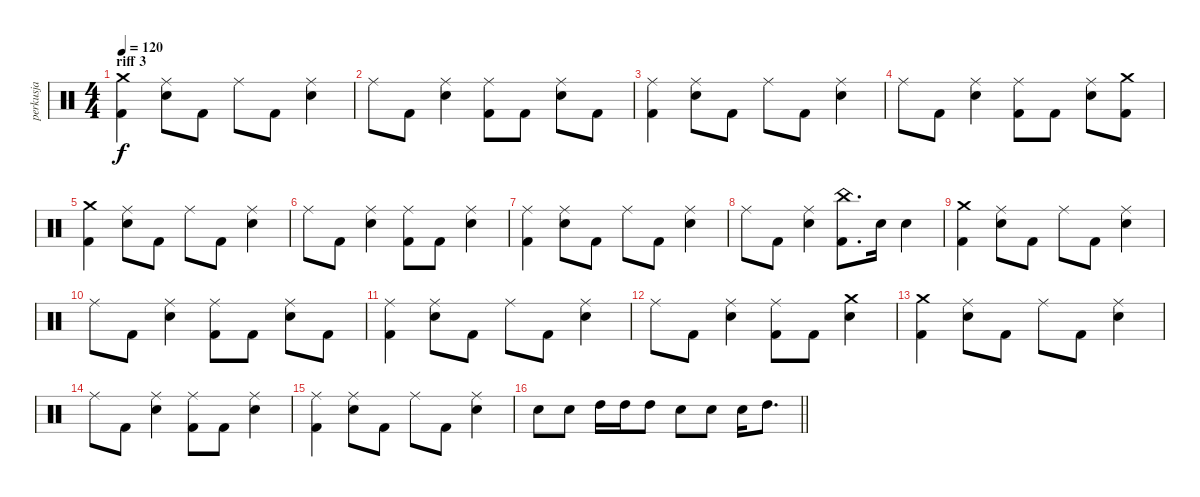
\track ("perkusja" "perkusja") {instrument percussion}
\staff {score}
\articulation defaults
\ts (4 4)
\section ("" "riff 3")
\tempo 120
\clef neutral
\ks c
("Crash medium (hit)" "Kick (hit) 2").4{dy f} ("Ride (middle)" "Electric Snare (hit)").8 "Kick (hit) 2".8 "Ride (middle)".8 "Kick (hit) 2".8 ("Ride (middle)" "Electric Snare (hit)").4 |
"Ride (middle)".8 "Kick (hit) 2".8 ("Ride (middle)" "Electric Snare (hit)").4 ("Ride (middle)" "Kick (hit) 2").8 "Kick (hit) 2".8 ("Ride (middle)" "Electric Snare (hit)").8 "Kick (hit) 2".8 |
("Ride (middle)" "Kick (hit) 2").4 ("Ride (middle)" "Electric Snare (hit)").8 "Kick (hit) 2".8 "Ride (middle)".8 "Kick (hit) 2".8 ("Ride (middle)" "Electric Snare (hit)").4 |
"Ride (middle)".8 "Kick (hit) 2".8 ("Ride (middle)" "Electric Snare (hit)").4 ("Ride (middle)" "Kick (hit) 2").8 "Kick (hit) 2".8 ("Ride (middle)" "Electric Snare (hit)").8 ("Crash medium (hit)" "Kick (hit) 2").8 |
("Crash medium (hit)" "Kick (hit) 2").4 ("Ride (middle)" "Electric Snare (hit)").8 "Kick (hit) 2".8 "Ride (middle)".8 "Kick (hit) 2".8 ("Ride (middle)" "Electric Snare (hit)").4 |
"Ride (middle)".8 "Kick (hit) 2".8 ("Ride (middle)" "Electric Snare (hit)").4 ("Ride (middle)" "Kick (hit) 2").8 "Kick (hit) 2".8 ("Ride (middle)" "Electric Snare (hit)").4 |
("Ride (middle)" "Kick (hit) 2").4 ("Ride (middle)" "Electric Snare (hit)").8 "Kick (hit) 2".8 "Ride (middle)".8 "Kick (hit) 2".8 ("Ride (middle)" "Electric Snare (hit)").4 |
"Ride (middle)".8 "Kick (hit) 2".8 ("Ride (middle)" "Electric Snare (hit)").4 ("China (hit)" "Kick (hit) 2").8{d} "Electric Snare (hit)".16 "Electric Snare (hit)".4 |
("Crash medium (hit)" "Kick (hit) 2").4 ("Ride (middle)" "Electric Snare (hit)").8 "Kick (hit) 2".8 "Ride (middle)".8 "Kick (hit) 2".8 ("Ride (middle)" "Electric Snare (hit)").4 |
"Ride (middle)".8 "Kick (hit) 2".8 ("Ride (middle)" "Electric Snare (hit)").4 ("Ride (middle)" "Kick (hit) 2").8 "Kick (hit) 2".8 ("Ride (middle)" "Electric Snare (hit)").8 "Kick (hit) 2".8 |
("Ride (middle)" "Kick (hit) 2").4 ("Ride (middle)" "Electric Snare (hit)").8 "Kick (hit) 2".8 "Ride (middle)".8 "Kick (hit) 2".8 ("Ride (middle)" "Electric Snare (hit)").4 |
"Ride (middle)".8 "Kick (hit) 2".8 ("Ride (middle)" "Electric Snare (hit)").4 ("Ride (middle)" "Kick (hit) 2").8 "Kick (hit) 2".8 ("Crash medium (hit)" "Electric Snare (hit)").4 |
("Crash medium (hit)" "Kick (hit) 2").4 ("Ride (middle)" "Electric Snare (hit)").8 "Kick (hit) 2".8 "Ride (middle)".8 "Kick (hit) 2".8 ("Ride (middle)" "Electric Snare (hit)").4 |
"Ride (middle)".8 "Kick (hit) 2".8 ("Ride (middle)" "Electric Snare (hit)").4 ("Ride (middle)" "Kick (hit) 2").8 "Kick (hit) 2".8 ("Ride (middle)" "Electric Snare (hit)").4 |
("Ride (middle)" "Kick (hit) 2").4 ("Ride (middle)" "Electric Snare (hit)").8 "Kick (hit) 2".8 "Ride (middle)".8 "Kick (hit) 2".8 ("Ride (middle)" "Electric Snare (hit)").4 |
\barLineRight lightlight "Electric Snare (hit)".8 "Electric Snare (hit)".8 "High Tom (hit)".16 "High Tom (hit)".16 "High Tom (hit)".8 "Electric Snare (hit)".8 "Electric Snare (hit)".8 "Electric Snare (hit)".16 "High Tom (hit)".8{d}
